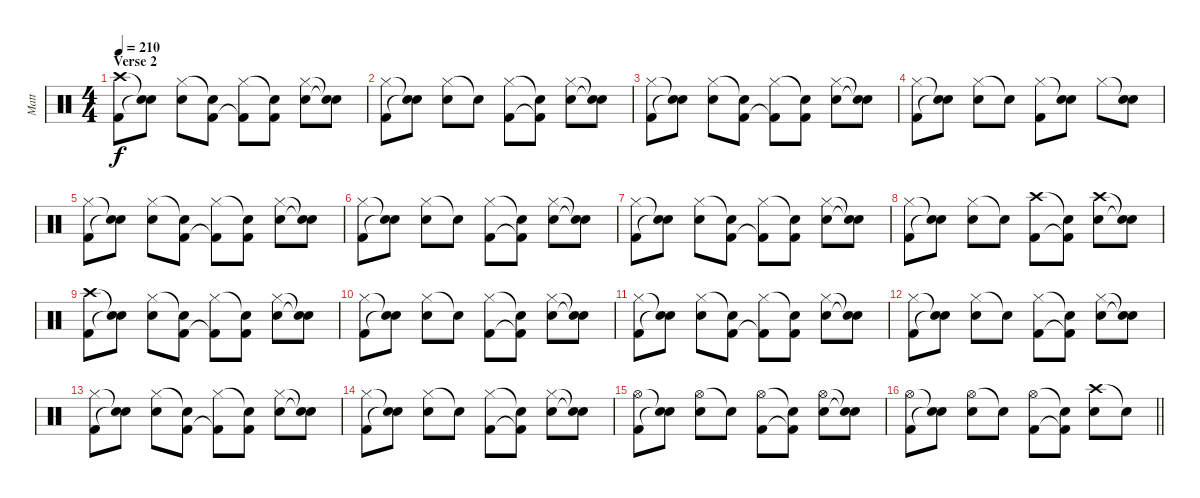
\track ("Matt" "Matt") {instrument percussion}
\staff {score}
\articulation defaults
\ts (4 4)
\section ("" "Verse 2")
\tempo 210
\clef neutral
\ks c
("Crash high (hit)" "Kick (hit) 2").8{dy f} ("Snare (hit)"{t} "Snare (hit)"{t}).8 ("Hi-Hat (closed)" "Snare (hit) 2").8 ("Snare (hit)"{t} "Kick (hit) 2").8 ("Hi-Hat (closed)" "Kick (hit) 2"{t}).8 ("Snare (hit)"{t} "Kick (hit) 2").8 ("Hi-Hat (closed)" "Snare (hit) 2").8 ("Snare (hit)"{t} "Snare (hit)"{t}).8 |
("Hi-Hat (closed)" "Kick (hit) 2").8 ("Snare (hit)"{t} "Snare (hit)"{t}).8 ("Hi-Hat (closed)" "Snare (hit) 2").8 "Snare (hit)"{t}.8 ("Hi-Hat (closed)" "Kick (hit) 2").8 ("Snare (hit)"{t} "Kick (hit) 2"{t}).8 ("Hi-Hat (closed)" "Snare (hit) 2").8 ("Snare (hit)"{t} "Snare (hit)"{t}).8 |
("Hi-Hat (closed)" "Kick (hit) 2").8 ("Snare (hit)"{t} "Snare (hit)"{t}).8 ("Hi-Hat (closed)" "Snare (hit) 2").8 ("Snare (hit)"{t} "Kick (hit) 2").8 ("Hi-Hat (closed)" "Kick (hit) 2"{t}).8 ("Snare (hit)"{t} "Kick (hit) 2").8 ("Hi-Hat (closed)" "Snare (hit) 2").8 ("Snare (hit)"{t} "Snare (hit)"{t}).8 |
("Hi-Hat (closed)" "Kick (hit) 2").8 ("Snare (hit)"{t} "Snare (hit)"{t}).8 ("Hi-Hat (closed)" "Snare (hit) 2").8 "Snare (hit)"{t}.8 ("Hi-Hat (closed)" "Kick (hit) 2").8 ("Snare (hit)"{t} "Snare (hit) 2").8 "Hi-Hat (closed)".8 ("Snare (hit)"{t} "Snare (hit) 2").8 |
("Hi-Hat (closed)" "Kick (hit) 2").8 ("Snare (hit)"{t} "Snare (hit)"{t}).8 ("Hi-Hat (closed)" "Snare (hit) 2").8 ("Snare (hit)"{t} "Kick (hit) 2").8 ("Hi-Hat (closed)" "Kick (hit) 2"{t}).8 ("Snare (hit)"{t} "Kick (hit) 2").8 ("Hi-Hat (closed)" "Snare (hit) 2").8 ("Snare (hit)"{t} "Snare (hit)"{t}).8 |
("Hi-Hat (closed)" "Kick (hit) 2").8 ("Snare (hit)"{t} "Snare (hit)"{t}).8 ("Hi-Hat (closed)" "Snare (hit) 2").8 "Snare (hit)"{t}.8 ("Hi-Hat (closed)" "Kick (hit) 2").8 ("Snare (hit)"{t} "Kick (hit) 2"{t}).8 ("Hi-Hat (closed)" "Snare (hit) 2").8 ("Snare (hit)"{t} "Snare (hit)"{t}).8 |
("Hi-Hat (closed)" "Kick (hit) 2").8 ("Snare (hit)"{t} "Snare (hit)"{t}).8 ("Hi-Hat (closed)" "Snare (hit) 2").8 ("Snare (hit)"{t} "Kick (hit) 2").8 ("Hi-Hat (closed)" "Kick (hit) 2"{t}).8 ("Snare (hit)"{t} "Kick (hit) 2").8 ("Hi-Hat (closed)" "Snare (hit) 2").8 ("Snare (hit)"{t} "Snare (hit)"{t}).8 |
("Hi-Hat (closed)" "Kick (hit) 2").8 ("Snare (hit)"{t} "Snare (hit)"{t}).8 ("Hi-Hat (closed)" "Snare (hit) 2").8 "Snare (hit)"{t}.8 ("Crash high (hit)" "Kick (hit) 2").8 ("Snare (hit)"{t} "Kick (hit) 2"{t}).8 ("Crash high (hit)" "Snare (hit) 2").8 ("Snare (hit)"{t} "Snare (hit)"{t}).8 |
("Crash high (hit)" "Kick (hit) 2").8 ("Snare (hit)"{t} "Snare (hit)"{t}).8 ("Hi-Hat (closed)" "Snare (hit) 2").8 ("Snare (hit)"{t} "Kick (hit) 2").8 ("Hi-Hat (closed)" "Kick (hit) 2"{t}).8 ("Snare (hit)"{t} "Kick (hit) 2").8 ("Hi-Hat (closed)" "Snare (hit) 2").8 ("Snare (hit)"{t} "Snare (hit)"{t}).8 |
("Hi-Hat (closed)" "Kick (hit) 2").8 ("Snare (hit)"{t} "Snare (hit)"{t}).8 ("Hi-Hat (closed)" "Snare (hit) 2").8 "Snare (hit)"{t}.8 ("Hi-Hat (closed)" "Kick (hit) 2").8 ("Snare (hit)"{t} "Kick (hit) 2"{t}).8 ("Hi-Hat (closed)" "Snare (hit) 2").8 ("Snare (hit)"{t} "Snare (hit)"{t}).8 |
("Hi-Hat (closed)" "Kick (hit) 2").8 ("Snare (hit)"{t} "Snare (hit)"{t}).8 ("Hi-Hat (closed)" "Snare (hit) 2").8 ("Snare (hit)"{t} "Kick (hit) 2").8 ("Hi-Hat (closed)" "Kick (hit) 2"{t}).8 ("Snare (hit)"{t} "Kick (hit) 2").8 ("Hi-Hat (closed)" "Snare (hit) 2").8 ("Snare (hit)"{t} "Snare (hit)"{t}).8 |
("Hi-Hat (closed)" "Kick (hit) 2").8 ("Snare (hit)"{t} "Snare (hit)"{t}).8 ("Hi-Hat (closed)" "Snare (hit) 2").8 "Snare (hit)"{t}.8 ("Hi-Hat (closed)" "Kick (hit) 2").8 ("Snare (hit)"{t} "Kick (hit) 2"{t}).8 ("Hi-Hat (closed)" "Snare (hit) 2").8 ("Snare (hit)"{t} "Snare (hit)"{t}).8 |
("Hi-Hat (closed)" "Kick (hit) 2").8 ("Snare (hit)"{t} "Snare (hit)"{t}).8 ("Hi-Hat (closed)" "Snare (hit) 2").8 ("Snare (hit)"{t} "Kick (hit) 2").8 ("Hi-Hat (closed)" "Kick (hit) 2"{t}).8 ("Snare (hit)"{t} "Kick (hit) 2").8 ("Hi-Hat (closed)" "Snare (hit) 2").8 ("Snare (hit)"{t} "Snare (hit)"{t}).8 |
("Hi-Hat (closed)" "Kick (hit) 2").8 ("Snare (hit)"{t} "Snare (hit)"{t}).8 ("Hi-Hat (closed)" "Snare (hit) 2").8 "Snare (hit)"{t}.8 ("Hi-Hat (closed)" "Kick (hit) 2").8 ("Snare (hit)"{t} "Kick (hit) 2"{t}).8 ("Hi-Hat (closed)" "Snare (hit) 2").8 ("Snare (hit)"{t} "Snare (hit)"{t}).8 |
("Hi-Hat (open)" "Kick (hit) 2").8 ("Snare (hit)"{t} "Snare (hit)"{t}).8 ("Hi-Hat (open)" "Snare (hit) 2").8 "Snare (hit)"{t}.8 ("Hi-Hat (open)" "Kick (hit) 2").8 ("Snare (hit)"{t} "Kick (hit) 2"{t}).8 ("Hi-Hat (open)" "Snare (hit) 2").8 ("Snare (hit)"{t} "Snare (hit)"{t}).8 |
\barLineRight lightlight
("Hi-Hat (open)" "Kick (hit) 2").8 ("Snare (hit)"{t} "Snare (hit)"{t}).8 ("Hi-Hat (open)" "Snare (hit) 2").8 "Snare (hit)"{t}.8 ("Hi-Hat (open)" "Kick (hit) 2").8 ("Snare (hit)"{t} "Kick (hit) 2"{t}).8 ("Crash high (hit)" "Snare (hit) 2").8 "Snare (hit)"{t}.8
